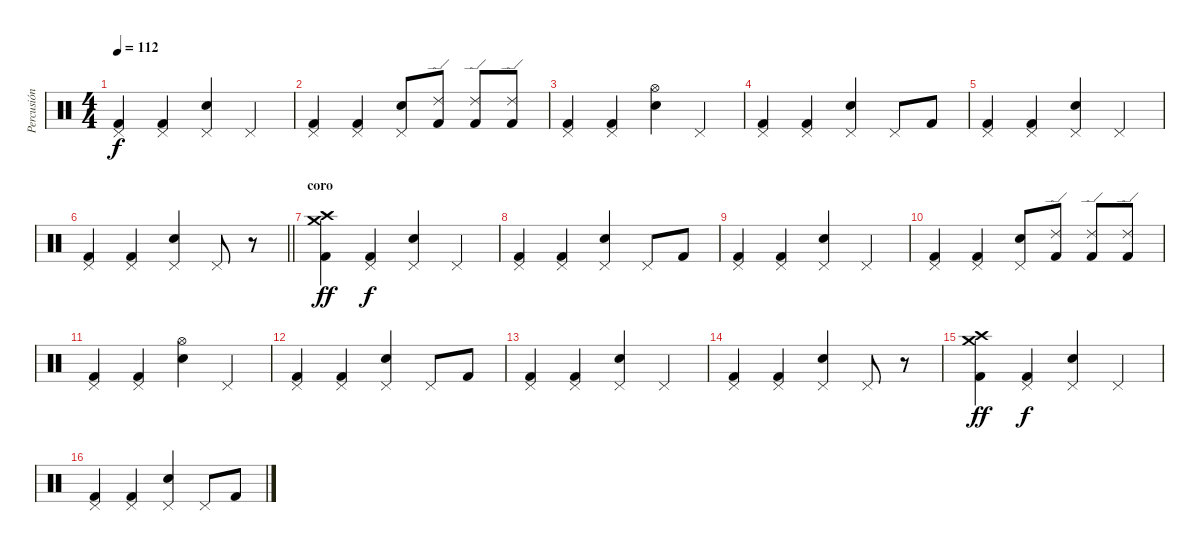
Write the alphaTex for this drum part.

\track ("Percusión" "Percusión") {instrument percussion}
\staff {score}
\articulation defaults
\ts (4 4)
\tempo 112
\clef neutral
\ks c
("Kick (hit) 2" "Pedal Hi-Hat (hit)").4{dy f} ("Kick (hit) 2" "Pedal Hi-Hat (hit)").4 ("Electric Snare (hit)" "Pedal Hi-Hat (hit)").4 "Pedal Hi-Hat (hit)".4 |
("Kick (hit) 2" "Pedal Hi-Hat (hit)").4 ("Kick (hit) 2" "Pedal Hi-Hat (hit)").4 ("Electric Snare (hit)" "Pedal Hi-Hat (hit)").8 ("Ride (edge) 2" "Kick (hit) 2").8 ("Ride (edge) 2" "Kick (hit) 2").8 ("Kick (hit) 2" "Ride (edge) 2").8 |
("Kick (hit) 2" "Pedal Hi-Hat (hit)").4 ("Kick (hit) 2" "Pedal Hi-Hat (hit)").4 ("Electric Snare (hit)" "Hi-Hat (open)").4 "Pedal Hi-Hat (hit)".4 |
("Kick (hit) 2" "Pedal Hi-Hat (hit)").4 ("Kick (hit) 2" "Pedal Hi-Hat (hit)").4 ("Electric Snare (hit)" "Pedal Hi-Hat (hit)").4 "Pedal Hi-Hat (hit)".8 "Kick (hit) 2".8 |
("Kick (hit) 2" "Pedal Hi-Hat (hit)").4 ("Kick (hit) 2" "Pedal Hi-Hat (hit)").4 ("Electric Snare (hit)" "Pedal Hi-Hat (hit)").4 "Pedal Hi-Hat (hit)".4 |
\barLineRight lightlight
("Kick (hit) 2" "Pedal Hi-Hat (hit)").4 ("Kick (hit) 2" "Pedal Hi-Hat (hit)").4 ("Electric Snare (hit)" "Pedal Hi-Hat (hit)").4 "Pedal Hi-Hat (hit)".8 r.8 |
\section ("" "coro")
("Kick (hit) 2" "Crash medium (hit)" "Crash high (hit)").4{dy ff} ("Kick (hit) 2" "Pedal Hi-Hat (hit)").4{dy f} ("Electric Snare (hit)" "Pedal Hi-Hat (hit)").4 "Pedal Hi-Hat (hit)".4 |
("Kick (hit) 2" "Pedal Hi-Hat (hit)").4 ("Kick (hit) 2" "Pedal Hi-Hat (hit)").4 ("Electric Snare (hit)" "Pedal Hi-Hat (hit)").4 "Pedal Hi-Hat (hit)".8 "Kick (hit) 2".8 |
("Kick (hit) 2" "Pedal Hi-Hat (hit)").4 ("Kick (hit) 2" "Pedal Hi-Hat (hit)").4 ("Electric Snare (hit)" "Pedal Hi-Hat (hit)").4 "Pedal Hi-Hat (hit)".4 |
("Kick (hit) 2" "Pedal Hi-Hat (hit)").4 ("Kick (hit) 2" "Pedal Hi-Hat (hit)").4 ("Electric Snare (hit)" "Pedal Hi-Hat (hit)").8 ("Ride (edge) 2" "Kick (hit) 2").8 ("Ride (edge) 2" "Kick (hit) 2").8 ("Kick (hit) 2" "Ride (edge) 2").8 |
("Kick (hit) 2" "Pedal Hi-Hat (hit)").4 ("Kick (hit) 2" "Pedal Hi-Hat (hit)").4 ("Electric Snare (hit)" "Hi-Hat (open)").4 "Pedal Hi-Hat (hit)".4 |
("Kick (hit) 2" "Pedal Hi-Hat (hit)").4 ("Kick (hit) 2" "Pedal Hi-Hat (hit)").4 ("Electric Snare (hit)" "Pedal Hi-Hat (hit)").4 "Pedal Hi-Hat (hit)".8 "Kick (hit) 2".8 |
("Kick (hit) 2" "Pedal Hi-Hat (hit)").4 ("Kick (hit) 2" "Pedal Hi-Hat (hit)").4 ("Electric Snare (hit)" "Pedal Hi-Hat (hit)").4 "Pedal Hi-Hat (hit)".4 |
("Kick (hit) 2" "Pedal Hi-Hat (hit)").4 ("Kick (hit) 2" "Pedal Hi-Hat (hit)").4 ("Electric Snare (hit)" "Pedal Hi-Hat (hit)").4 "Pedal Hi-Hat (hit)".8 r.8 |
("Kick (hit) 2" "Crash medium (hit)" "Crash high (hit)").4{dy ff} ("Kick (hit) 2" "Pedal Hi-Hat (hit)").4{dy f} ("Electric Snare (hit)" "Pedal Hi-Hat (hit)").4 "Pedal Hi-Hat (hit)".4 |
("Kick (hit) 2" "Pedal Hi-Hat (hit)").4 ("Kick (hit) 2" "Pedal Hi-Hat (hit)").4 ("Electric Snare (hit)" "Pedal Hi-Hat (hit)").4 "Pedal Hi-Hat (hit)".8 "Kick (hit) 2".8
